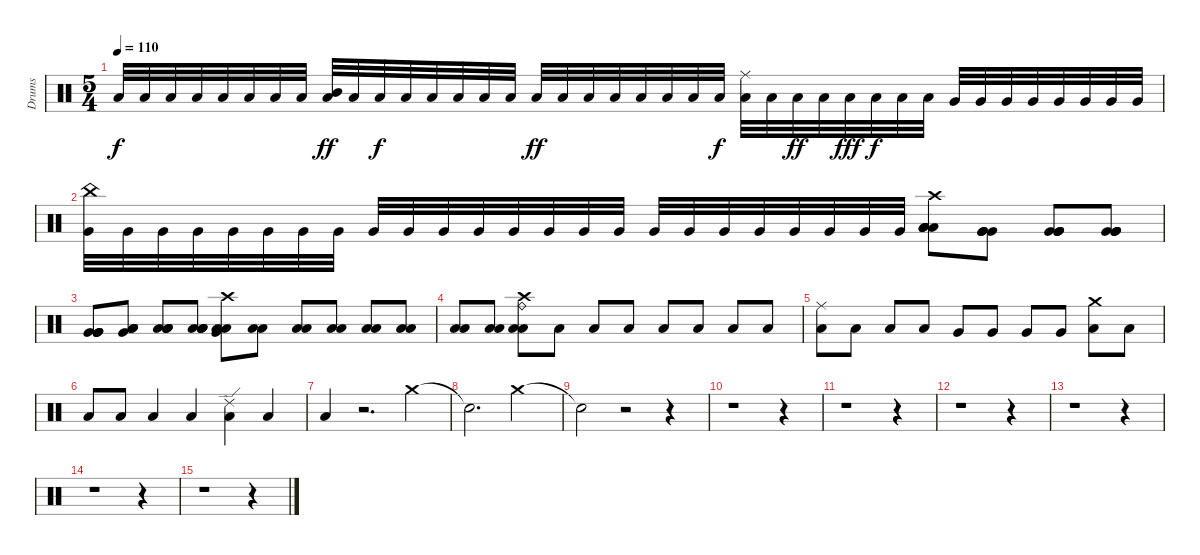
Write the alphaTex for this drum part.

\track ("Drums" "Drums") {instrument percussion}
\staff {score}
\articulation defaults
\ts (5 4)
\tempo 110
\clef neutral
\ks c "Low Floor Tom (hit)".32{dy f} "Low Floor Tom (hit)".32 "Low Floor Tom (hit)".32 "Low Floor Tom (hit)".32 "Low Floor Tom (hit)".32 "Low Floor Tom (hit)".32 "Low Floor Tom (hit)".32 "Low Floor Tom (hit)".32
("Low Floor Tom (hit)" "Mid Tom (hit)").32{dy ff} "Low Floor Tom (hit)".32 "Low Floor Tom (hit)".32{dy f} "Low Floor Tom (hit)".32 "Low Floor Tom (hit)".32 "Low Floor Tom (hit)".32 "Low Floor Tom (hit)".32 "Low Floor Tom (hit)".32 "Low Floor Tom (hit)".32{dy ff} "Low Floor Tom (hit)".32 "Low Floor Tom (hit)".32 "Low Floor Tom (hit)".32 "Low Floor Tom (hit)".32 "Low Floor Tom (hit)".32 "Low Floor Tom (hit)".32 "Low Floor Tom (hit)".32{dy f} ("Low Floor Tom (hit)" "Ride (middle)").32 "Low Floor Tom (hit)".32 "Low Floor Tom (hit)".32{dy ff} "Low Floor Tom (hit)".32 "Low Floor Tom (hit)".32{dy fff} "Low Floor Tom (hit)".32{dy f} "Low Floor Tom (hit)".32 "Low Floor Tom (hit)".32 "Very Low Tom (hit)".32 "Very Low Tom (hit)".32 "Very Low Tom (hit)".32 "Very Low Tom (hit)".32 "Very Low Tom (hit)".32 "Very Low Tom (hit)".32 "Very Low Tom (hit)".32 "Very Low Tom (hit)".32 |
("Very Low Tom (hit)" "China (hit)").32 "Very Low Tom (hit)".32 "Very Low Tom (hit)".32 "Very Low Tom (hit)".32 "Very Low Tom (hit)".32 "Very Low Tom (hit)".32 "Very Low Tom (hit)".32 "Very Low Tom (hit)".32 "Very Low Tom (hit)".32 "Very Low Tom (hit)".32 "Very Low Tom (hit)".32 "Very Low Tom (hit)".32 "Very Low Tom (hit)".32 "Very Low Tom (hit)".32 "Very Low Tom (hit)".32 "Very Low Tom (hit)".32 "Very Low Tom (hit)".32 "Very Low Tom (hit)".32 "Very Low Tom (hit)".32 "Very Low Tom (hit)".32 "Very Low Tom (hit)".32 "Very Low Tom (hit)".32 "Very Low Tom (hit)".32 "Very Low Tom (hit)".32 ("Low Floor Tom (hit)" "Low Floor Tom (hit)" "Crash high (hit)" "Low Floor Tom (hit)" "Low Floor Tom (hit)").8 ("Very Low Tom (hit)" "Very Low Tom (hit)" "Very Low Tom (hit)" "Very Low Tom (hit)").8 ("Very Low Tom (hit)" "Very Low Tom (hit)" "Very Low Tom (hit)" "Very Low Tom (hit)").8 ("Very Low Tom (hit)" "Very Low Tom (hit)" "Very Low Tom (hit)" "Very Low Tom (hit)").8 |
("Very Low Tom (hit)" "Very Low Tom (hit)" "Very Low Tom (hit)" "Very Low Tom (hit)").8 ("Very Low Tom (hit)" "Low Tom (hit)" "Low Tom (hit)" "Low Tom (hit)").8 ("Low Tom (hit)" "Low Tom (hit)" "Low Tom (hit)" "Low Tom (hit)").8 ("Low Tom (hit)" "Low Tom (hit)" "Low Tom (hit)" "Low Tom (hit)").8 ("Very Low Tom (hit)" "Low Floor Tom (hit)" "Crash high (hit)" "Low Floor Tom (hit)").8 ("Low Floor Tom (hit)" "Low Floor Tom (hit)").8 ("Low Floor Tom (hit)" "Low Floor Tom (hit)").8 ("Low Floor Tom (hit)" "Low Floor Tom (hit)").8 ("Low Floor Tom (hit)" "Low Floor Tom (hit)").8 ("Low Floor Tom (hit)" "Low Floor Tom (hit)").8 |
("Low Floor Tom (hit)" "Low Floor Tom (hit)").8 ("Low Floor Tom (hit)" "Low Floor Tom (hit)").8 ("Low Floor Tom (hit)" "Ride (bell)" "Crash high (hit)" "Low Floor Tom (hit)").8 "Low Floor Tom (hit)".8 "Low Floor Tom (hit)".8 "Low Floor Tom (hit)".8 "Low Floor Tom (hit)".8 "Low Floor Tom (hit)".8 "Low Floor Tom (hit)".8 "Low Floor Tom (hit)".8 |
("Ride (middle)" "Low Tom (hit)").8 "Low Tom (hit)".8 "Low Tom (hit)".8 "Low Tom (hit)".8 "Very Low Tom (hit)".8 "Very Low Tom (hit)".8 "Very Low Tom (hit)".8 "Very Low Tom (hit)".8 ("Crash medium (hit)" "Low Floor Tom (hit)").8 "Low Floor Tom (hit)".8 |
"Low Floor Tom (hit)".8 "Low Floor Tom (hit)".8 "Low Floor Tom (hit)".4 "Low Floor Tom (hit)".4 ("Ride (edge) 2" "Low Floor Tom (hit)").4 "Low Floor Tom (hit)".4 |
"Low Floor Tom (hit)".4 r.2{d} "Crash medium (hit)".4 |
"Snare (hit)"{t}.2{d} "Crash medium (hit)".2 |
"Snare (hit)"{t}.2 r.2 r.4 |
r.1 r.4 |
r.1 r.4 |
r.1 r.4 |
r.1 r.4 |
r.1 r.4 |
r.1 r.4
